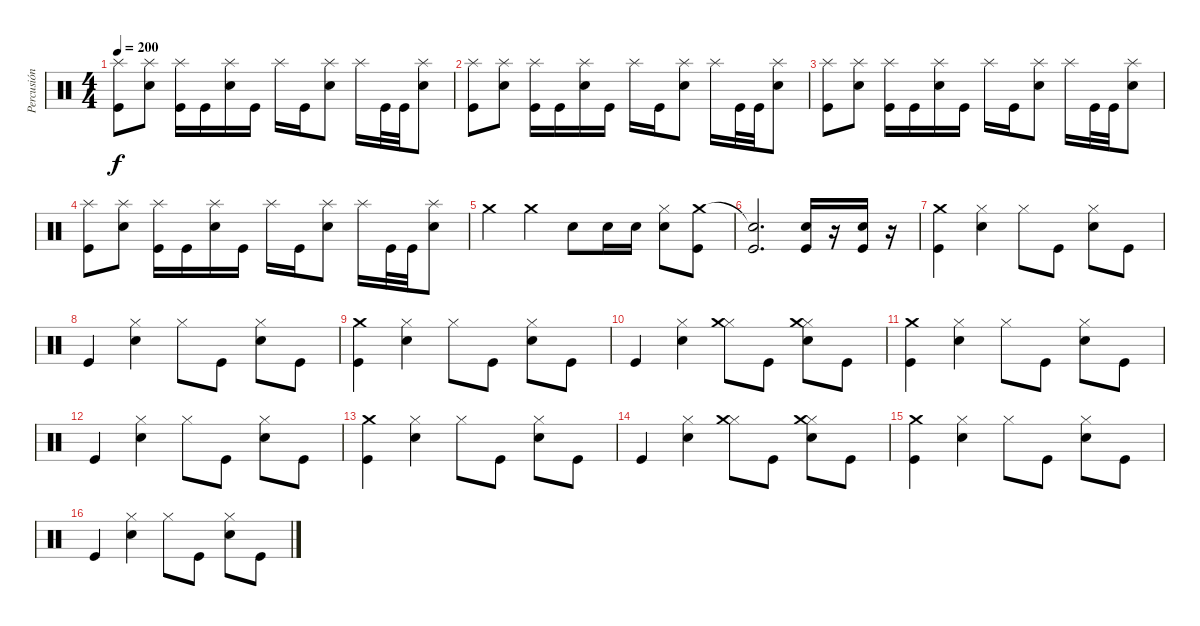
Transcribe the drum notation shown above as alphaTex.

\track ("Percusión" "Percusión") {instrument percussion}
\staff {score}
\articulation defaults
\ts (4 4)
\tempo 200
\clef neutral
\ks c
("Splash (hit)" "Kick (hit)").8{dy f} ("Splash (hit)" "Electric Snare (hit)").8 ("Splash (hit)" "Kick (hit)").16 "Kick (hit)".16 ("Splash (hit)" "Electric Snare (hit)").16 "Kick (hit)".16 "Splash (hit)".16 "Kick (hit)".16 ("Splash (hit)" "Electric Snare (hit)").8 "Splash (hit)".16 "Kick (hit)".32 "Kick (hit)".32 ("Splash (hit)" "Electric Snare (hit)").8 |
("Splash (hit)" "Kick (hit)").8 ("Splash (hit)" "Electric Snare (hit)").8 ("Splash (hit)" "Kick (hit)").16 "Kick (hit)".16 ("Splash (hit)" "Electric Snare (hit)").16 "Kick (hit)".16 "Splash (hit)".16 "Kick (hit)".16 ("Splash (hit)" "Electric Snare (hit)").8 "Splash (hit)".16 "Kick (hit)".32 "Kick (hit)".32 ("Splash (hit)" "Electric Snare (hit)").8 |
("Splash (hit)" "Kick (hit)").8 ("Splash (hit)" "Electric Snare (hit)").8 ("Splash (hit)" "Kick (hit)").16 "Kick (hit)".16 ("Splash (hit)" "Electric Snare (hit)").16 "Kick (hit)".16 "Splash (hit)".16 "Kick (hit)".16 ("Splash (hit)" "Electric Snare (hit)").8 "Splash (hit)".16 "Kick (hit)".32 "Kick (hit)".32 ("Splash (hit)" "Electric Snare (hit)").8 |
("Splash (hit)" "Kick (hit)").8 ("Splash (hit)" "Electric Snare (hit)").8 ("Splash (hit)" "Kick (hit)").16 "Kick (hit)".16 ("Splash (hit)" "Electric Snare (hit)").16 "Kick (hit)".16 "Splash (hit)".16 "Kick (hit)".16 ("Splash (hit)" "Electric Snare (hit)").8 "Splash (hit)".16 "Kick (hit)".32 "Kick (hit)".32 ("Splash (hit)" "Electric Snare (hit)").8 |
"Crash medium (hit)".4 "Crash medium (hit)".4 "Snare (hit) 2".8 "Snare (hit) 2".16 "Snare (hit) 2".16 ("Snare (hit) 2" "Hi-Hat (closed)").8 ("Kick (hit)" "Crash medium (hit)").8 |
("Kick (hit)" "Snare (hit)"{t}).2{d} ("Snare (hit) 2" "Kick (hit)").16 r.16 ("Snare (hit) 2" "Kick (hit)").16 r.16 |
("Kick (hit)" "Crash medium (hit)").4 ("Snare (hit) 2" "Hi-Hat (closed)").4 "Hi-Hat (closed)".8 "Kick (hit)".8 ("Snare (hit) 2" "Hi-Hat (closed)").8 "Kick (hit)".8 |
"Kick (hit)".4 ("Snare (hit) 2" "Hi-Hat (closed)").4 "Hi-Hat (closed)".8 "Kick (hit)".8 ("Snare (hit) 2" "Hi-Hat (closed)").8 "Kick (hit)".8 |
("Kick (hit)" "Crash medium (hit)").4 ("Snare (hit) 2" "Hi-Hat (closed)").4 "Hi-Hat (closed)".8 "Kick (hit)".8 ("Snare (hit) 2" "Hi-Hat (closed)").8 "Kick (hit)".8 |
"Kick (hit)".4 ("Snare (hit) 2" "Hi-Hat (closed)").4 ("Hi-Hat (closed)" "Crash medium (hit)").8 "Kick (hit)".8 ("Snare (hit) 2" "Hi-Hat (closed)" "Crash medium (hit)").8 "Kick (hit)".8 |
("Kick (hit)" "Crash medium (hit)").4 ("Snare (hit) 2" "Hi-Hat (closed)").4 "Hi-Hat (closed)".8 "Kick (hit)".8 ("Snare (hit) 2" "Hi-Hat (closed)").8 "Kick (hit)".8 |
"Kick (hit)".4 ("Snare (hit) 2" "Hi-Hat (closed)").4 "Hi-Hat (closed)".8 "Kick (hit)".8 ("Snare (hit) 2" "Hi-Hat (closed)").8 "Kick (hit)".8 |
("Kick (hit)" "Crash medium (hit)").4 ("Snare (hit) 2" "Hi-Hat (closed)").4 "Hi-Hat (closed)".8 "Kick (hit)".8 ("Snare (hit) 2" "Hi-Hat (closed)").8 "Kick (hit)".8 |
"Kick (hit)".4 ("Snare (hit) 2" "Hi-Hat (closed)").4 ("Hi-Hat (closed)" "Crash medium (hit)").8 "Kick (hit)".8 ("Snare (hit) 2" "Hi-Hat (closed)" "Crash medium (hit)").8 "Kick (hit)".8 |
("Kick (hit)" "Crash medium (hit)").4 ("Snare (hit) 2" "Hi-Hat (closed)").4 "Hi-Hat (closed)".8 "Kick (hit)".8 ("Snare (hit) 2" "Hi-Hat (closed)").8 "Kick (hit)".8 |
"Kick (hit)".4 ("Snare (hit) 2" "Hi-Hat (closed)").4 "Hi-Hat (closed)".8 "Kick (hit)".8 ("Snare (hit) 2" "Hi-Hat (closed)").8 "Kick (hit)".8
